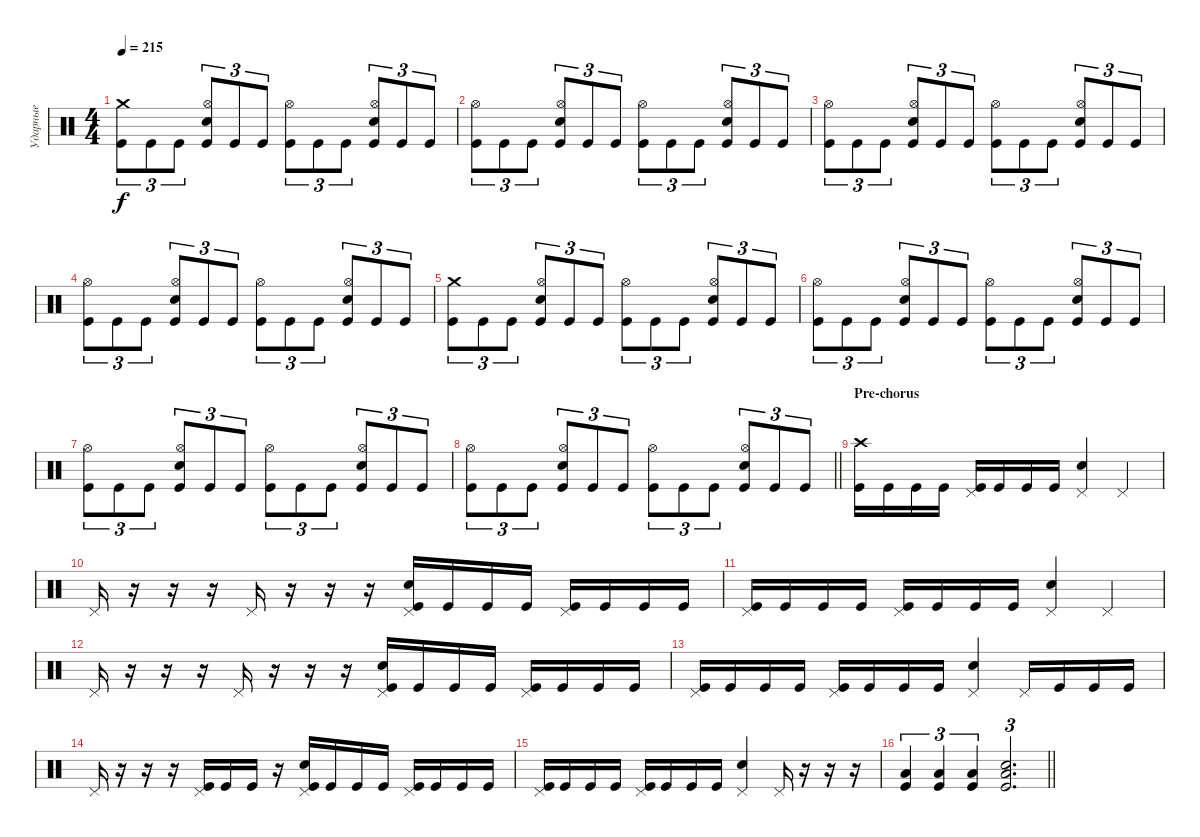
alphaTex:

\track ("Ударные" "Ударные") {instrument percussion}
\staff {score}
\articulation defaults
\ts (4 4)
\tempo 215
\clef neutral
\ks c
("Crash medium (hit)" "Kick (hit)").8{tu (3 2) dy f} "Kick (hit)".8{tu (3 2)} "Kick (hit)".8{tu (3 2)} ("Hi-Hat (open)" "Electric Snare (hit)" "Kick (hit)").8{tu (3 2)} "Kick (hit)".8{tu (3 2)} "Kick (hit)".8{tu (3 2)} ("Hi-Hat (open)" "Kick (hit)").8{tu (3 2)} "Kick (hit)".8{tu (3 2)} "Kick (hit)".8{tu (3 2)} ("Hi-Hat (open)" "Electric Snare (hit)" "Kick (hit)").8{tu (3 2)} "Kick (hit)".8{tu (3 2)} "Kick (hit)".8{tu (3 2)} |
("Hi-Hat (open)" "Kick (hit)").8{tu (3 2)} "Kick (hit)".8{tu (3 2)} "Kick (hit)".8{tu (3 2)} ("Hi-Hat (open)" "Electric Snare (hit)" "Kick (hit)").8{tu (3 2)} "Kick (hit)".8{tu (3 2)} "Kick (hit)".8{tu (3 2)} ("Hi-Hat (open)" "Kick (hit)").8{tu (3 2)} "Kick (hit)".8{tu (3 2)} "Kick (hit)".8{tu (3 2)} ("Hi-Hat (open)" "Electric Snare (hit)" "Kick (hit)").8{tu (3 2)} "Kick (hit)".8{tu (3 2)} "Kick (hit)".8{tu (3 2)} |
("Hi-Hat (open)" "Kick (hit)").8{tu (3 2)} "Kick (hit)".8{tu (3 2)} "Kick (hit)".8{tu (3 2)} ("Hi-Hat (open)" "Electric Snare (hit)" "Kick (hit)").8{tu (3 2)} "Kick (hit)".8{tu (3 2)} "Kick (hit)".8{tu (3 2)} ("Hi-Hat (open)" "Kick (hit)").8{tu (3 2)} "Kick (hit)".8{tu (3 2)} "Kick (hit)".8{tu (3 2)} ("Hi-Hat (open)" "Electric Snare (hit)" "Kick (hit)").8{tu (3 2)} "Kick (hit)".8{tu (3 2)} "Kick (hit)".8{tu (3 2)} |
("Hi-Hat (open)" "Kick (hit)").8{tu (3 2)} "Kick (hit)".8{tu (3 2)} "Kick (hit)".8{tu (3 2)} ("Hi-Hat (open)" "Electric Snare (hit)" "Kick (hit)").8{tu (3 2)} "Kick (hit)".8{tu (3 2)} "Kick (hit)".8{tu (3 2)} ("Hi-Hat (open)" "Kick (hit)").8{tu (3 2)} "Kick (hit)".8{tu (3 2)} "Kick (hit)".8{tu (3 2)} ("Hi-Hat (open)" "Electric Snare (hit)" "Kick (hit)").8{tu (3 2)} "Kick (hit)".8{tu (3 2)} "Kick (hit)".8{tu (3 2)} |
("Crash medium (hit)" "Kick (hit)").8{tu (3 2)} "Kick (hit)".8{tu (3 2)} "Kick (hit)".8{tu (3 2)} ("Hi-Hat (open)" "Electric Snare (hit)" "Kick (hit)").8{tu (3 2)} "Kick (hit)".8{tu (3 2)} "Kick (hit)".8{tu (3 2)} ("Hi-Hat (open)" "Kick (hit)").8{tu (3 2)} "Kick (hit)".8{tu (3 2)} "Kick (hit)".8{tu (3 2)} ("Hi-Hat (open)" "Electric Snare (hit)" "Kick (hit)").8{tu (3 2)} "Kick (hit)".8{tu (3 2)} "Kick (hit)".8{tu (3 2)} |
("Hi-Hat (open)" "Kick (hit)").8{tu (3 2)} "Kick (hit)".8{tu (3 2)} "Kick (hit)".8{tu (3 2)} ("Hi-Hat (open)" "Electric Snare (hit)" "Kick (hit)").8{tu (3 2)} "Kick (hit)".8{tu (3 2)} "Kick (hit)".8{tu (3 2)} ("Hi-Hat (open)" "Kick (hit)").8{tu (3 2)} "Kick (hit)".8{tu (3 2)} "Kick (hit)".8{tu (3 2)} ("Hi-Hat (open)" "Electric Snare (hit)" "Kick (hit)").8{tu (3 2)} "Kick (hit)".8{tu (3 2)} "Kick (hit)".8{tu (3 2)} |
("Hi-Hat (open)" "Kick (hit)").8{tu (3 2)} "Kick (hit)".8{tu (3 2)} "Kick (hit)".8{tu (3 2)} ("Hi-Hat (open)" "Electric Snare (hit)" "Kick (hit)").8{tu (3 2)} "Kick (hit)".8{tu (3 2)} "Kick (hit)".8{tu (3 2)} ("Hi-Hat (open)" "Kick (hit)").8{tu (3 2)} "Kick (hit)".8{tu (3 2)} "Kick (hit)".8{tu (3 2)} ("Hi-Hat (open)" "Electric Snare (hit)" "Kick (hit)").8{tu (3 2)} "Kick (hit)".8{tu (3 2)} "Kick (hit)".8{tu (3 2)} |
\barLineRight lightlight
("Hi-Hat (open)" "Kick (hit)").8{tu (3 2)} "Kick (hit)".8{tu (3 2)} "Kick (hit)".8{tu (3 2)} ("Hi-Hat (open)" "Electric Snare (hit)" "Kick (hit)").8{tu (3 2)} "Kick (hit)".8{tu (3 2)} "Kick (hit)".8{tu (3 2)} ("Hi-Hat (open)" "Kick (hit)").8{tu (3 2)} "Kick (hit)".8{tu (3 2)} "Kick (hit)".8{tu (3 2)} ("Hi-Hat (open)" "Electric Snare (hit)" "Kick (hit)").8{tu (3 2)} "Kick (hit)".8{tu (3 2)} "Kick (hit)".8{tu (3 2)} |
\section ("" "Pre-chorus")
("Crash high (hit)" "Kick (hit)").16 "Kick (hit)".16 "Kick (hit)".16 "Kick (hit)".16 ("Pedal Hi-Hat (hit)" "Kick (hit)").16 "Kick (hit)".16 "Kick (hit)".16 "Kick (hit)".16 ("Pedal Hi-Hat (hit)" "Electric Snare (hit)").4 "Pedal Hi-Hat (hit)".4 |
"Pedal Hi-Hat (hit)".16 r.16 r.16 r.16 "Pedal Hi-Hat (hit)".16 r.16 r.16 r.16 ("Pedal Hi-Hat (hit)" "Electric Snare (hit)" "Kick (hit)").16 "Kick (hit)".16 "Kick (hit)".16 "Kick (hit)".16 ("Pedal Hi-Hat (hit)" "Kick (hit)").16 "Kick (hit)".16 "Kick (hit)".16 "Kick (hit)".16 |
("Pedal Hi-Hat (hit)" "Kick (hit)").16 "Kick (hit)".16 "Kick (hit)".16 "Kick (hit)".16 ("Pedal Hi-Hat (hit)" "Kick (hit)").16 "Kick (hit)".16 "Kick (hit)".16 "Kick (hit)".16 ("Pedal Hi-Hat (hit)" "Electric Snare (hit)").4 "Pedal Hi-Hat (hit)".4 |
"Pedal Hi-Hat (hit)".16 r.16 r.16 r.16 "Pedal Hi-Hat (hit)".16 r.16 r.16 r.16 ("Pedal Hi-Hat (hit)" "Electric Snare (hit)" "Kick (hit)").16 "Kick (hit)".16 "Kick (hit)".16 "Kick (hit)".16 ("Pedal Hi-Hat (hit)" "Kick (hit)").16 "Kick (hit)".16 "Kick (hit)".16 "Kick (hit)".16 |
("Pedal Hi-Hat (hit)" "Kick (hit)").16 "Kick (hit)".16 "Kick (hit)".16 "Kick (hit)".16 ("Pedal Hi-Hat (hit)" "Kick (hit)").16 "Kick (hit)".16 "Kick (hit)".16 "Kick (hit)".16 ("Pedal Hi-Hat (hit)" "Electric Snare (hit)").4 "Pedal Hi-Hat (hit)".16 "Kick (hit)".16 "Kick (hit)".16 "Kick (hit)".16 |
"Pedal Hi-Hat (hit)".16 r.16 r.16 r.16 ("Pedal Hi-Hat (hit)" "Kick (hit)").16 "Kick (hit)".16 "Kick (hit)".16 r.16 ("Pedal Hi-Hat (hit)" "Electric Snare (hit)" "Kick (hit)").16 "Kick (hit)".16 "Kick (hit)".16 "Kick (hit)".16 ("Pedal Hi-Hat (hit)" "Kick (hit)").16 "Kick (hit)".16 "Kick (hit)".16 "Kick (hit)".16 |
("Pedal Hi-Hat (hit)" "Kick (hit)").16 "Kick (hit)".16 "Kick (hit)".16 "Kick (hit)".16 ("Pedal Hi-Hat (hit)" "Kick (hit)").16 "Kick (hit)".16 "Kick (hit)".16 "Kick (hit)".16 ("Pedal Hi-Hat (hit)" "Electric Snare (hit)").4 "Pedal Hi-Hat (hit)".16 r.16 r.16 r.16 |
\barLineRight lightlight
("Low Floor Tom (hit)" "Kick (hit)").4{tu (3 2)} ("Low Floor Tom (hit)" "Kick (hit)").4{tu (3 2)} ("Low Floor Tom (hit)" "Kick (hit)").4{tu (3 2)} ("Low Floor Tom (hit)" "Electric Snare (hit)" "Kick (hit)").2{d tu (3 2)}
